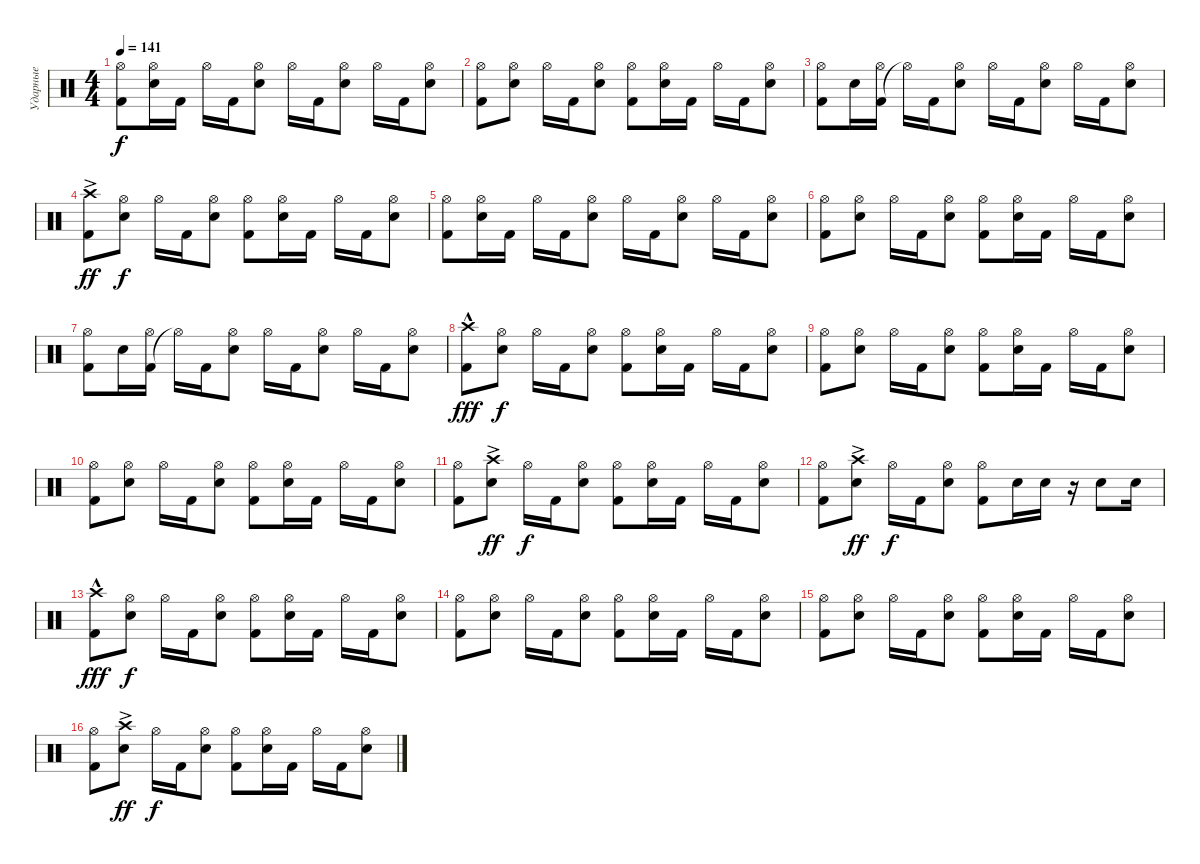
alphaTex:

\track ("Ударные" "Ударные") {instrument percussion}
\staff
\articulation defaults
\ts (4 4)
\tempo 141
\clef neutral
\ks c
("Kick (hit) 2" "Hi-Hat (open)").8{dy f} ("Snare (hit) 2" "Hi-Hat (open)").16 "Kick (hit) 2".16 "Hi-Hat (open)".16 "Kick (hit) 2".16 ("Snare (hit) 2" "Hi-Hat (open)").8 "Hi-Hat (open)".16 "Kick (hit) 2".16 ("Snare (hit) 2" "Hi-Hat (open)").8 "Hi-Hat (open)".16 "Kick (hit) 2".16 ("Snare (hit) 2" "Hi-Hat (open)").8 |
("Kick (hit) 2" "Hi-Hat (open)").8 ("Snare (hit) 2" "Hi-Hat (open)").8 "Hi-Hat (open)".16 "Kick (hit) 2".16 ("Snare (hit) 2" "Hi-Hat (open)").8 ("Kick (hit) 2" "Hi-Hat (open)").8 ("Snare (hit) 2" "Hi-Hat (open)").16 "Kick (hit) 2".16 "Hi-Hat (open)".16 "Kick (hit) 2".16 ("Snare (hit) 2" "Hi-Hat (open)").8 |
("Kick (hit) 2" "Hi-Hat (open)").8 "Snare (hit) 2".16 ("Kick (hit) 2" "Hi-Hat (open)").16 "Hi-Hat (open)"{t}.16 "Kick (hit) 2".16 ("Snare (hit) 2" "Hi-Hat (open)").8 "Hi-Hat (open)".16 "Kick (hit) 2".16 ("Snare (hit) 2" "Hi-Hat (open)").8 "Hi-Hat (open)".16 "Kick (hit) 2".16 ("Snare (hit) 2" "Hi-Hat (open)").8 |
("Kick (hit) 2" "Crash high (hit)"{ac}).8{dy ff} ("Snare (hit) 2" "Hi-Hat (open)").8{dy f} "Hi-Hat (open)".16 "Kick (hit) 2".16 ("Snare (hit) 2" "Hi-Hat (open)").8 ("Kick (hit) 2" "Hi-Hat (open)").8 ("Snare (hit) 2" "Hi-Hat (open)").16 "Kick (hit) 2".16 "Hi-Hat (open)".16 "Kick (hit) 2".16 ("Snare (hit) 2" "Hi-Hat (open)").8 |
("Kick (hit) 2" "Hi-Hat (open)").8 ("Snare (hit) 2" "Hi-Hat (open)").16 "Kick (hit) 2".16 "Hi-Hat (open)".16 "Kick (hit) 2".16 ("Snare (hit) 2" "Hi-Hat (open)").8 "Hi-Hat (open)".16 "Kick (hit) 2".16 ("Snare (hit) 2" "Hi-Hat (open)").8 "Hi-Hat (open)".16 "Kick (hit) 2".16 ("Snare (hit) 2" "Hi-Hat (open)").8 |
("Kick (hit) 2" "Hi-Hat (open)").8 ("Snare (hit) 2" "Hi-Hat (open)").8 "Hi-Hat (open)".16 "Kick (hit) 2".16 ("Snare (hit) 2" "Hi-Hat (open)").8 ("Kick (hit) 2" "Hi-Hat (open)").8 ("Snare (hit) 2" "Hi-Hat (open)").16 "Kick (hit) 2".16 "Hi-Hat (open)".16 "Kick (hit) 2".16 ("Snare (hit) 2" "Hi-Hat (open)").8 |
("Kick (hit) 2" "Hi-Hat (open)").8 "Snare (hit) 2".16 ("Kick (hit) 2" "Hi-Hat (open)").16 "Hi-Hat (open)"{t}.16 "Kick (hit) 2".16 ("Snare (hit) 2" "Hi-Hat (open)").8 "Hi-Hat (open)".16 "Kick (hit) 2".16 ("Snare (hit) 2" "Hi-Hat (open)").8 "Hi-Hat (open)".16 "Kick (hit) 2".16 ("Snare (hit) 2" "Hi-Hat (open)").8 |
("Kick (hit) 2" "Crash high (hit)"{hac}).8{dy fff} ("Snare (hit) 2" "Hi-Hat (open)").8{dy f} "Hi-Hat (open)".16 "Kick (hit) 2".16 ("Snare (hit) 2" "Hi-Hat (open)").8 ("Kick (hit) 2" "Hi-Hat (open)").8 ("Snare (hit) 2" "Hi-Hat (open)").16 "Kick (hit) 2".16 "Hi-Hat (open)".16 "Kick (hit) 2".16 ("Snare (hit) 2" "Hi-Hat (open)").8 |
("Kick (hit) 2" "Hi-Hat (open)").8 ("Snare (hit) 2" "Hi-Hat (open)").8 "Hi-Hat (open)".16 "Kick (hit) 2".16 ("Snare (hit) 2" "Hi-Hat (open)").8 ("Kick (hit) 2" "Hi-Hat (open)").8 ("Snare (hit) 2" "Hi-Hat (open)").16 "Kick (hit) 2".16 "Hi-Hat (open)".16 "Kick (hit) 2".16 ("Snare (hit) 2" "Hi-Hat (open)").8 |
("Kick (hit) 2" "Hi-Hat (open)").8 ("Snare (hit) 2" "Hi-Hat (open)").8 "Hi-Hat (open)".16 "Kick (hit) 2".16 ("Snare (hit) 2" "Hi-Hat (open)").8 ("Kick (hit) 2" "Hi-Hat (open)").8 ("Snare (hit) 2" "Hi-Hat (open)").16 "Kick (hit) 2".16 "Hi-Hat (open)".16 "Kick (hit) 2".16 ("Snare (hit) 2" "Hi-Hat (open)").8 |
("Kick (hit) 2" "Hi-Hat (open)").8 ("Snare (hit) 2" "Crash high (hit)"{ac}).8{dy ff} "Hi-Hat (open)".16{dy f} "Kick (hit) 2".16 ("Snare (hit) 2" "Hi-Hat (open)").8 ("Kick (hit) 2" "Hi-Hat (open)").8 ("Snare (hit) 2" "Hi-Hat (open)").16 "Kick (hit) 2".16 "Hi-Hat (open)".16 "Kick (hit) 2".16 ("Snare (hit) 2" "Hi-Hat (open)").8 |
("Kick (hit) 2" "Hi-Hat (open)").8 ("Snare (hit) 2" "Crash high (hit)"{ac}).8{dy ff} "Hi-Hat (open)".16{dy f} "Kick (hit) 2".16 ("Snare (hit) 2" "Hi-Hat (open)").8 ("Kick (hit) 2" "Hi-Hat (open)").8 "Snare (hit) 2".16 "Snare (hit) 2".16 r.16 "Snare (hit) 2".8 "Snare (hit) 2".16 |
("Kick (hit) 2" "Crash high (hit)"{hac}).8{dy fff} ("Snare (hit) 2" "Hi-Hat (open)").8{dy f} "Hi-Hat (open)".16 "Kick (hit) 2".16 ("Snare (hit) 2" "Hi-Hat (open)").8 ("Kick (hit) 2" "Hi-Hat (open)").8 ("Snare (hit) 2" "Hi-Hat (open)").16 "Kick (hit) 2".16 "Hi-Hat (open)".16 "Kick (hit) 2".16 ("Snare (hit) 2" "Hi-Hat (open)").8 |
("Kick (hit) 2" "Hi-Hat (open)").8 ("Snare (hit) 2" "Hi-Hat (open)").8 "Hi-Hat (open)".16 "Kick (hit) 2".16 ("Snare (hit) 2" "Hi-Hat (open)").8 ("Kick (hit) 2" "Hi-Hat (open)").8 ("Snare (hit) 2" "Hi-Hat (open)").16 "Kick (hit) 2".16 "Hi-Hat (open)".16 "Kick (hit) 2".16 ("Snare (hit) 2" "Hi-Hat (open)").8 |
("Kick (hit) 2" "Hi-Hat (open)").8 ("Snare (hit) 2" "Hi-Hat (open)").8 "Hi-Hat (open)".16 "Kick (hit) 2".16 ("Snare (hit) 2" "Hi-Hat (open)").8 ("Kick (hit) 2" "Hi-Hat (open)").8 ("Snare (hit) 2" "Hi-Hat (open)").16 "Kick (hit) 2".16 "Hi-Hat (open)".16 "Kick (hit) 2".16 ("Snare (hit) 2" "Hi-Hat (open)").8 |
("Kick (hit) 2" "Hi-Hat (open)").8 ("Snare (hit) 2" "Crash high (hit)"{ac}).8{dy ff} "Hi-Hat (open)".16{dy f} "Kick (hit) 2".16 ("Snare (hit) 2" "Hi-Hat (open)").8 ("Kick (hit) 2" "Hi-Hat (open)").8 ("Snare (hit) 2" "Hi-Hat (open)").16 "Kick (hit) 2".16 "Hi-Hat (open)".16 "Kick (hit) 2".16 ("Snare (hit) 2" "Hi-Hat (open)").8
